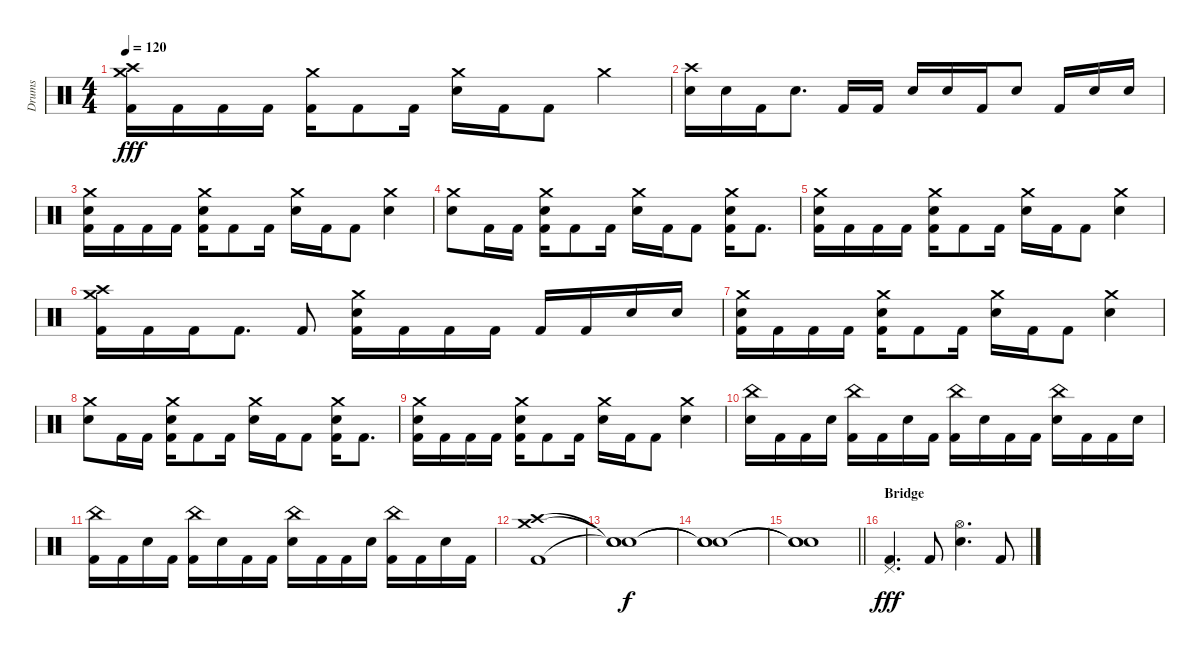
\track ("Drums" "Drums") {instrument percussion}
\staff {score}
\articulation defaults
\ts (4 4)
\tempo 120
\clef neutral
\ks c
("Crash medium (hit)" "Crash high (hit)" "Kick (hit) 2").16{dy fff} "Kick (hit) 2".16 "Kick (hit) 2".16 "Kick (hit) 2".16 ("Crash medium (hit)" "Kick (hit) 2").16 "Kick (hit) 2".8 "Kick (hit) 2".16 ("Crash medium (hit)" "Electric Snare (hit)").16 "Kick (hit) 2".16 "Kick (hit) 2".8 "Crash medium (hit)".4 |
("Crash high (hit)" "Electric Snare (hit)").16 "Electric Snare (hit)".16 "Kick (hit) 2".16 "Electric Snare (hit)".8{d} "Kick (hit) 2".16 "Kick (hit) 2".16 "Electric Snare (hit)".16 "Electric Snare (hit)".16 "Kick (hit) 2".16 "Electric Snare (hit)".8 "Kick (hit) 2".16 "Electric Snare (hit)".16 "Electric Snare (hit)".16 |
("Crash medium (hit)" "Electric Snare (hit)" "Kick (hit) 2").16 "Kick (hit) 2".16 "Kick (hit) 2".16 "Kick (hit) 2".16 ("Crash medium (hit)" "Electric Snare (hit)" "Kick (hit) 2").16 "Kick (hit) 2".8 "Kick (hit) 2".16 ("Crash medium (hit)" "Electric Snare (hit)").16 "Kick (hit) 2".16 "Kick (hit) 2".8 ("Crash medium (hit)" "Electric Snare (hit)").4 |
("Crash medium (hit)" "Electric Snare (hit)").8 "Kick (hit) 2".16 "Kick (hit) 2".16 ("Crash medium (hit)" "Electric Snare (hit)" "Kick (hit) 2").16 "Kick (hit) 2".8 "Kick (hit) 2".16 ("Crash medium (hit)" "Electric Snare (hit)").16 "Kick (hit) 2".16 "Kick (hit) 2".8 ("Crash medium (hit)" "Electric Snare (hit)" "Kick (hit) 2").16 "Kick (hit) 2".8{d} |
("Crash medium (hit)" "Electric Snare (hit)" "Kick (hit) 2").16 "Kick (hit) 2".16 "Kick (hit) 2".16 "Kick (hit) 2".16 ("Crash medium (hit)" "Electric Snare (hit)" "Kick (hit) 2").16 "Kick (hit) 2".8 "Kick (hit) 2".16 ("Crash medium (hit)" "Electric Snare (hit)").16 "Kick (hit) 2".16 "Kick (hit) 2".8 ("Crash medium (hit)" "Electric Snare (hit)").4 |
("Crash medium (hit)" "Crash high (hit)" "Kick (hit) 2").16 "Kick (hit) 2".16 "Kick (hit) 2".16 "Kick (hit) 2".8{d} "Kick (hit) 2".8 ("Crash medium (hit)" "Electric Snare (hit)" "Kick (hit) 2").16 "Kick (hit) 2".16 "Kick (hit) 2".16 "Kick (hit) 2".16 "Kick (hit) 2".16 "Kick (hit) 2".16 "Electric Snare (hit)".16 "Electric Snare (hit)".16 |
("Crash medium (hit)" "Electric Snare (hit)" "Kick (hit) 2").16 "Kick (hit) 2".16 "Kick (hit) 2".16 "Kick (hit) 2".16 ("Crash medium (hit)" "Electric Snare (hit)" "Kick (hit) 2").16 "Kick (hit) 2".8 "Kick (hit) 2".16 ("Crash medium (hit)" "Electric Snare (hit)").16 "Kick (hit) 2".16 "Kick (hit) 2".8 ("Crash medium (hit)" "Electric Snare (hit)").4 |
("Crash medium (hit)" "Electric Snare (hit)").8 "Kick (hit) 2".16 "Kick (hit) 2".16 ("Crash medium (hit)" "Electric Snare (hit)" "Kick (hit) 2").16 "Kick (hit) 2".8 "Kick (hit) 2".16 ("Crash medium (hit)" "Electric Snare (hit)").16 "Kick (hit) 2".16 "Kick (hit) 2".8 ("Crash medium (hit)" "Electric Snare (hit)" "Kick (hit) 2").16 "Kick (hit) 2".8{d} |
("Crash medium (hit)" "Electric Snare (hit)" "Kick (hit) 2").16 "Kick (hit) 2".16 "Kick (hit) 2".16 "Kick (hit) 2".16 ("Crash medium (hit)" "Electric Snare (hit)" "Kick (hit) 2").16 "Kick (hit) 2".8 "Kick (hit) 2".16 ("Crash medium (hit)" "Electric Snare (hit)").16 "Kick (hit) 2".16 "Kick (hit) 2".8 ("Crash medium (hit)" "Electric Snare (hit)").4 |
("China (hit)" "Electric Snare (hit)").16 "Kick (hit) 2".16 "Kick (hit) 2".16 "Electric Snare (hit)".16 ("China (hit)" "Kick (hit) 2").16 "Kick (hit) 2".16 "Electric Snare (hit)".16 "Kick (hit) 2".16 ("China (hit)" "Kick (hit) 2").16 "Electric Snare (hit)".16 "Kick (hit) 2".16 "Kick (hit) 2".16 ("China (hit)" "Electric Snare (hit)").16 "Kick (hit) 2".16 "Kick (hit) 2".16 "Electric Snare (hit)".16 |
("China (hit)" "Kick (hit) 2").16 "Kick (hit) 2".16 "Electric Snare (hit)".16 "Kick (hit) 2".16 ("China (hit)" "Kick (hit) 2").16 "Electric Snare (hit)".16 "Kick (hit) 2".16 "Kick (hit) 2".16 ("China (hit)" "Electric Snare (hit)").16 "Kick (hit) 2".16 "Kick (hit) 2".16 "Electric Snare (hit)".16 ("China (hit)" "Kick (hit) 2").16 "Kick (hit) 2".16 "Electric Snare (hit)".16 "Kick (hit) 2".16 |
("Crash medium (hit)" "Crash high (hit)" "Kick (hit) 2").1 |
("Snare (hit)"{t} "Snare (hit)"{t} "Snare (hit)"{t}).1{dy f} |
("Snare (hit)"{t} "Snare (hit)"{t} "Snare (hit)"{t}).1 |
\barLineRight lightlight
("Snare (hit)"{t} "Snare (hit)"{t} "Snare (hit)"{t}).1 |
\section ("" "Bridge")
("Pedal Hi-Hat (hit)" "Kick (hit) 2").4{d dy fff} "Kick (hit) 2".8 ("Hi-Hat (open)" "Snare (hit) 2").4{d} "Kick (hit) 2".8
